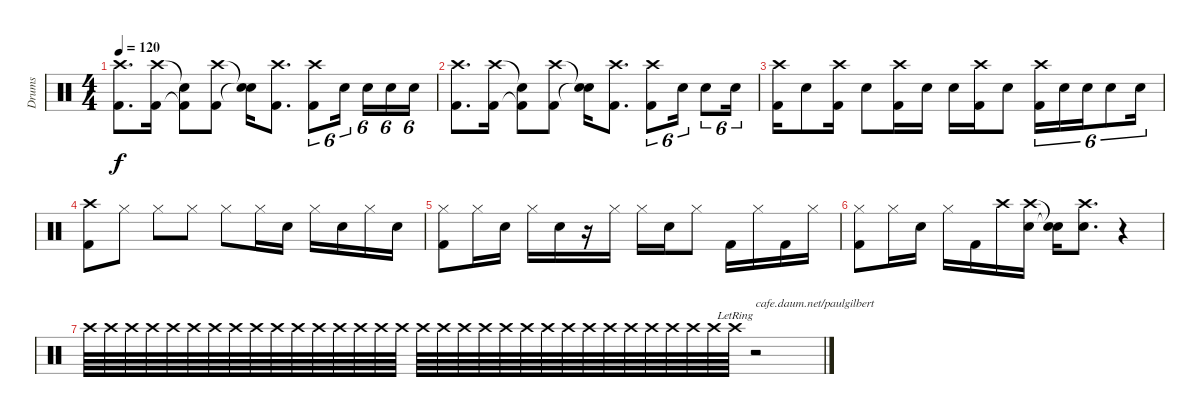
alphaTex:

\track ("Drums" "Drums") {instrument percussion}
\staff {score}
\articulation defaults
\ts (4 4)
\tempo 120
\clef neutral
\ks c
("Crash high (hit)" "Kick (hit) 2").8{d dy f} ("Crash high (hit)" "Kick (hit) 2").16 ("Snare (hit)"{t} "Kick (hit) 2"{t}).8 ("Crash high (hit)" "Kick (hit) 2").8 ("Snare (hit)"{t} "Snare (hit)"{t}).16 ("Crash high (hit)" "Kick (hit) 2").8{d} ("Crash high (hit)" "Kick (hit) 2").8{tu (6 4)} "Snare (hit) 2".16{tu (6 4)} "Snare (hit) 2".16{tu (6 4)} "Snare (hit) 2".16{tu (6 4)} "Snare (hit) 2".16{tu (6 4)} |
("Crash high (hit)" "Kick (hit) 2").8{d} ("Crash high (hit)" "Kick (hit) 2").16 ("Snare (hit)"{t} "Kick (hit) 2"{t}).8 ("Crash high (hit)" "Kick (hit) 2").8 ("Snare (hit)"{t} "Snare (hit)"{t}).16 ("Crash high (hit)" "Kick (hit) 2").8{d} ("Crash high (hit)" "Kick (hit) 2").8{tu (6 4)} "Snare (hit) 2".16{tu (6 4)} "Snare (hit) 2".8{tu (6 4)} "Snare (hit) 2".16{tu (6 4)} |
("Crash high (hit)" "Kick (hit) 2").16 "Snare (hit) 2".8 ("Crash high (hit)" "Kick (hit) 2").16 "Snare (hit) 2".8 ("Crash high (hit)" "Kick (hit) 2").16 "Snare (hit) 2".16 "Snare (hit) 2".16 ("Crash high (hit)" "Kick (hit) 2").16 "Snare (hit) 2".8 ("Crash high (hit)" "Kick (hit) 2").16{tu (6 4)} "Snare (hit) 2".16{tu (6 4)} "Snare (hit) 2".16{tu (6 4)} "Snare (hit) 2".8{tu (6 4)} "Snare (hit) 2".16{tu (6 4)} |
("Crash high (hit)" "Kick (hit) 2").8 "Hi-Hat (closed)".8 "Hi-Hat (closed)".8 "Hi-Hat (closed)".8 "Hi-Hat (closed)".8 "Hi-Hat (closed)".16 "Snare (hit) 2".16 "Hi-Hat (closed)".16 "Snare (hit) 2".16 "Hi-Hat (closed)".16 "Snare (hit) 2".16 |
("Hi-Hat (closed)" "Kick (hit) 2").8 "Hi-Hat (closed)".16 "Snare (hit) 2".16 "Hi-Hat (closed)".16 "Snare (hit) 2".16 r.16 "Hi-Hat (closed)".16 "Hi-Hat (closed)".16 "Snare (hit) 2".16 "Hi-Hat (closed)".8 "Kick (hit) 2".16 "Hi-Hat (closed)".16 "Kick (hit) 2".16 "Hi-Hat (closed)".16 |
("Hi-Hat (closed)" "Kick (hit) 2").8 "Hi-Hat (closed)".16 "Snare (hit) 2".16 "Hi-Hat (closed)".16 "Kick (hit) 2".16 "Crash high (hit)".16 ("Crash high (hit)" "Snare (hit) 2").16 ("Snare (hit)"{t} "Snare (hit)"{t}).16 ("Crash high (hit)" "Snare (hit) 2").8{d} r.4 |
"Crash high (hit)".64 "Crash high (hit)".64 "Crash high (hit)".64 "Crash high (hit)".64 "Crash high (hit)".64 "Crash high (hit)".64 "Crash high (hit)".64 "Crash high (hit)".64 "Crash high (hit)".64 "Crash high (hit)".64 "Crash high (hit)".64 "Crash high (hit)".64 "Crash high (hit)".64 "Crash high (hit)".64 "Crash high (hit)".64 "Crash high (hit)".64 "Crash high (hit)".64 "Crash high (hit)".64 "Crash high (hit)".64 "Crash high (hit)".64 "Crash high (hit)".64 "Crash high (hit)".64 "Crash high (hit)".64 "Crash high (hit)".64 "Crash high (hit)".64 "Crash high (hit)".64 "Crash high (hit)".64 "Crash high (hit)".64 "Crash high (hit)".64 "Crash high (hit)".64 "Crash high (hit)".64 "Crash high (hit)"{lr}.64 r.2{txt "cafe.daum.net/paulgilbert"}
